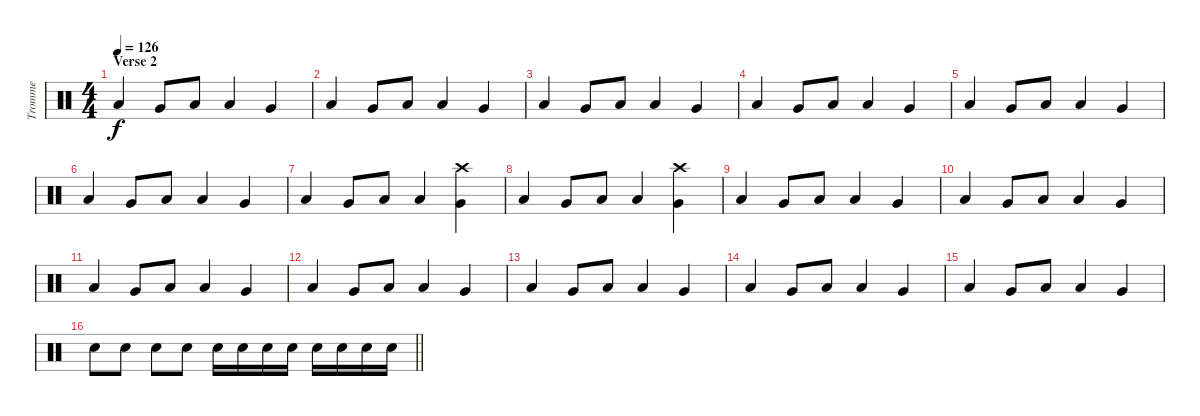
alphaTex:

\track ("Tromme" "Tromme") {instrument percussion}
\staff {score}
\articulation defaults
\ts (4 4)
\section ("" "Verse 2")
\tempo 126
\clef neutral
\ks c "Low Floor Tom (hit)".4{dy f} "Very Low Tom (hit)".8 "Low Floor Tom (hit)".8 "Low Floor Tom (hit)".4 "Very Low Tom (hit)".4
|
"Low Floor Tom (hit)".4 "Very Low Tom (hit)".8 "Low Floor Tom (hit)".8 "Low Floor Tom (hit)".4 "Very Low Tom (hit)".4 |
"Low Floor Tom (hit)".4 "Very Low Tom (hit)".8 "Low Floor Tom (hit)".8 "Low Floor Tom (hit)".4 "Very Low Tom (hit)".4 |
"Low Floor Tom (hit)".4 "Very Low Tom (hit)".8 "Low Floor Tom (hit)".8 "Low Floor Tom (hit)".4 "Very Low Tom (hit)".4 |
"Low Floor Tom (hit)".4 "Very Low Tom (hit)".8 "Low Floor Tom (hit)".8 "Low Floor Tom (hit)".4 "Very Low Tom (hit)".4 |
"Low Floor Tom (hit)".4 "Very Low Tom (hit)".8 "Low Floor Tom (hit)".8 "Low Floor Tom (hit)".4 "Very Low Tom (hit)".4 |
"Low Floor Tom (hit)".4 "Very Low Tom (hit)".8 "Low Floor Tom (hit)".8 "Low Floor Tom (hit)".4 ("Crash high (hit)" "Very Low Tom (hit)").4 |
"Low Floor Tom (hit)".4 "Very Low Tom (hit)".8 "Low Floor Tom (hit)".8 "Low Floor Tom (hit)".4 ("Crash high (hit)" "Very Low Tom (hit)").4 |
"Low Floor Tom (hit)".4 "Very Low Tom (hit)".8 "Low Floor Tom (hit)".8 "Low Floor Tom (hit)".4 "Very Low Tom (hit)".4 |
"Low Floor Tom (hit)".4 "Very Low Tom (hit)".8 "Low Floor Tom (hit)".8 "Low Floor Tom (hit)".4 "Very Low Tom (hit)".4 |
"Low Floor Tom (hit)".4 "Very Low Tom (hit)".8 "Low Floor Tom (hit)".8 "Low Floor Tom (hit)".4 "Very Low Tom (hit)".4 |
"Low Floor Tom (hit)".4 "Very Low Tom (hit)".8 "Low Floor Tom (hit)".8 "Low Floor Tom (hit)".4 "Very Low Tom (hit)".4 |
"Low Floor Tom (hit)".4 "Very Low Tom (hit)".8 "Low Floor Tom (hit)".8 "Low Floor Tom (hit)".4 "Very Low Tom (hit)".4 |
"Low Floor Tom (hit)".4 "Very Low Tom (hit)".8 "Low Floor Tom (hit)".8 "Low Floor Tom (hit)".4 "Very Low Tom (hit)".4 |
"Low Floor Tom (hit)".4 "Very Low Tom (hit)".8 "Low Floor Tom (hit)".8 "Low Floor Tom (hit)".4 "Very Low Tom (hit)".4 |
\barLineRight lightlight "Snare (hit) 2".8 "Snare (hit) 2".8 "Snare (hit) 2".8 "Snare (hit) 2".8 "Snare (hit) 2".16 "Snare (hit) 2".16 "Snare (hit) 2".16 "Snare (hit) 2".16 "Snare (hit) 2".16 "Snare (hit) 2".16 "Snare (hit) 2".16 "Snare (hit) 2".16
